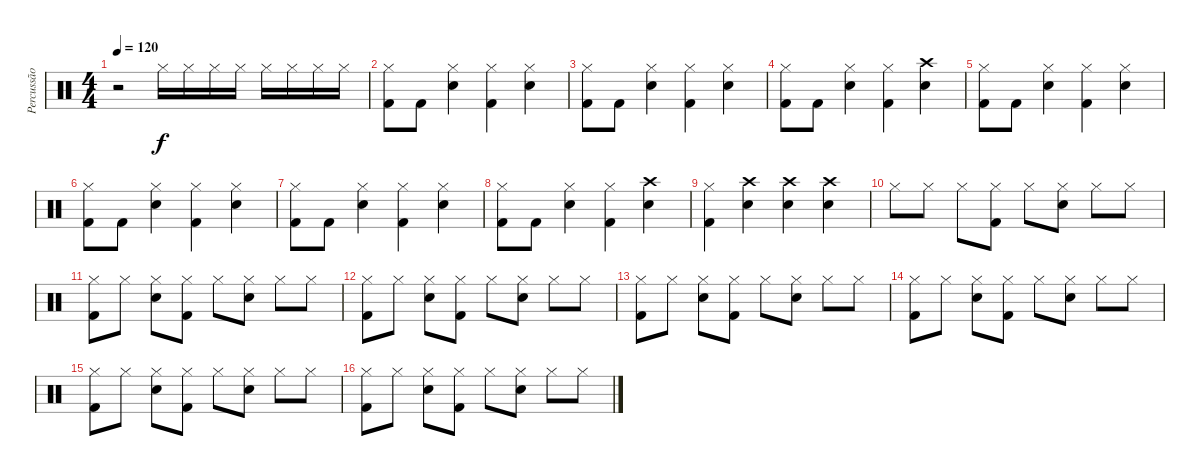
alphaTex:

\track ("Percussão" "Percussão") {instrument percussion}
\staff {score}
\articulation defaults
\ts (4 4)
\tempo 120
\clef neutral
\ks c
r.2{dy f} "Hi-Hat (closed)".16 "Hi-Hat (closed)".16 "Hi-Hat (closed)".16 "Hi-Hat (closed)".16 "Hi-Hat (closed)".16 "Hi-Hat (closed)".16 "Hi-Hat (closed)".16 "Hi-Hat (closed)".16 |
("Hi-Hat (closed)" "Kick (hit) 2").8 "Kick (hit) 2".8 ("Hi-Hat (closed)" "Electric Snare (hit)").4 ("Hi-Hat (closed)" "Kick (hit) 2").4 ("Hi-Hat (closed)" "Electric Snare (hit)").4 |
("Hi-Hat (closed)" "Kick (hit) 2").8 "Kick (hit) 2".8 ("Hi-Hat (closed)" "Electric Snare (hit)").4 ("Hi-Hat (closed)" "Kick (hit) 2").4 ("Hi-Hat (closed)" "Electric Snare (hit)").4 |
("Hi-Hat (closed)" "Kick (hit) 2").8 "Kick (hit) 2".8 ("Hi-Hat (closed)" "Electric Snare (hit)").4 ("Hi-Hat (closed)" "Kick (hit) 2").4 ("Crash high (hit)" "Electric Snare (hit)").4 |
("Hi-Hat (closed)" "Kick (hit) 2").8 "Kick (hit) 2".8 ("Hi-Hat (closed)" "Electric Snare (hit)").4 ("Hi-Hat (closed)" "Kick (hit) 2").4 ("Hi-Hat (closed)" "Electric Snare (hit)").4 |
("Hi-Hat (closed)" "Kick (hit) 2").8 "Kick (hit) 2".8 ("Hi-Hat (closed)" "Electric Snare (hit)").4 ("Hi-Hat (closed)" "Kick (hit) 2").4 ("Hi-Hat (closed)" "Electric Snare (hit)").4 |
("Hi-Hat (closed)" "Kick (hit) 2").8 "Kick (hit) 2".8 ("Hi-Hat (closed)" "Electric Snare (hit)").4 ("Hi-Hat (closed)" "Kick (hit) 2").4 ("Hi-Hat (closed)" "Electric Snare (hit)").4 |
("Hi-Hat (closed)" "Kick (hit) 2").8 "Kick (hit) 2".8 ("Hi-Hat (closed)" "Electric Snare (hit)").4 ("Hi-Hat (closed)" "Kick (hit) 2").4 ("Crash high (hit)" "Electric Snare (hit)").4 |
("Hi-Hat (closed)" "Kick (hit) 2").4 ("Crash high (hit)" "Electric Snare (hit)").4 ("Crash high (hit)" "Electric Snare (hit)").4 ("Crash high (hit)" "Electric Snare (hit)").4 |
"Hi-Hat (closed)".8 "Hi-Hat (closed)".8 "Hi-Hat (closed)".8 ("Hi-Hat (closed)" "Kick (hit) 2").8 "Hi-Hat (closed)".8 ("Hi-Hat (closed)" "Electric Snare (hit)").8 "Hi-Hat (closed)".8 "Hi-Hat (closed)".8 |
("Hi-Hat (closed)" "Kick (hit) 2").8 "Hi-Hat (closed)".8 ("Hi-Hat (closed)" "Electric Snare (hit)").8 ("Hi-Hat (closed)" "Kick (hit) 2").8 "Hi-Hat (closed)".8 ("Hi-Hat (closed)" "Electric Snare (hit)").8 "Hi-Hat (closed)".8 "Hi-Hat (closed)".8 |
("Hi-Hat (closed)" "Kick (hit) 2").8 "Hi-Hat (closed)".8 ("Hi-Hat (closed)" "Electric Snare (hit)").8 ("Hi-Hat (closed)" "Kick (hit) 2").8 "Hi-Hat (closed)".8 ("Hi-Hat (closed)" "Electric Snare (hit)").8 "Hi-Hat (closed)".8 "Hi-Hat (closed)".8 |
("Hi-Hat (closed)" "Kick (hit) 2").8 "Hi-Hat (closed)".8 ("Hi-Hat (closed)" "Electric Snare (hit)").8 ("Hi-Hat (closed)" "Kick (hit) 2").8 "Hi-Hat (closed)".8 ("Hi-Hat (closed)" "Electric Snare (hit)").8 "Hi-Hat (closed)".8 "Hi-Hat (closed)".8 |
("Hi-Hat (closed)" "Kick (hit) 2").8 "Hi-Hat (closed)".8 ("Hi-Hat (closed)" "Electric Snare (hit)").8 ("Hi-Hat (closed)" "Kick (hit) 2").8 "Hi-Hat (closed)".8 ("Hi-Hat (closed)" "Electric Snare (hit)").8 "Hi-Hat (closed)".8 "Hi-Hat (closed)".8 |
("Hi-Hat (closed)" "Kick (hit) 2").8 "Hi-Hat (closed)".8 ("Hi-Hat (closed)" "Electric Snare (hit)").8 ("Hi-Hat (closed)" "Kick (hit) 2").8 "Hi-Hat (closed)".8 ("Hi-Hat (closed)" "Electric Snare (hit)").8 "Hi-Hat (closed)".8 "Hi-Hat (closed)".8 |
("Hi-Hat (closed)" "Kick (hit) 2").8 "Hi-Hat (closed)".8 ("Hi-Hat (closed)" "Electric Snare (hit)").8 ("Hi-Hat (closed)" "Kick (hit) 2").8 "Hi-Hat (closed)".8 ("Hi-Hat (closed)" "Electric Snare (hit)").8 "Hi-Hat (closed)".8 "Hi-Hat (closed)".8
